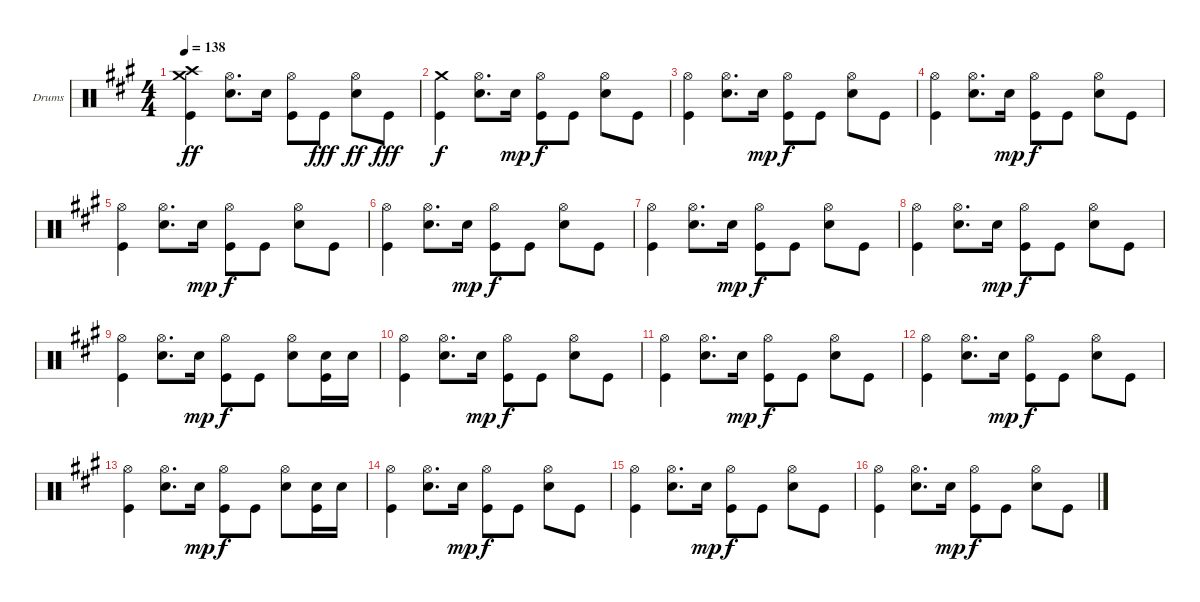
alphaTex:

\defaultSystemsLayout 4
\bracketExtendMode groupsimilarinstruments
\firstSystemTrackNameOrientation horizontal
\otherSystemsTrackNameOrientation horizontal
\track ("Drumkit" "Drums") {instrument percussion}
\staff {score}
\articulation defaults
\ts (4 4)
\tempo 138
\clef neutral
\scale
0.941992
\ks a
("Crash medium (hit)" "Crash high (hit)" "Kick (hit)").4{dy ff} ("Hi-Hat (open)" "Snare (hit) 2").8{d} "Snare (hit) 2".16 ("Hi-Hat (open)" "Kick (hit)").8 "Kick (hit)".8{dy fff} ("Hi-Hat (open)" "Snare (hit) 2").8{dy ff} "Kick (hit)".8{dy fff} |
\scale
1.05801 ("Crash medium (hit)" "Kick (hit)").4{dy f} ("Hi-Hat (open)" "Snare (hit) 2").8{d} "Snare (hit) 2".16{dy mp} ("Hi-Hat (open)" "Kick (hit)").8{dy f} "Kick (hit)".8 ("Hi-Hat (open)" "Snare (hit) 2").8 "Kick (hit)".8 |
\scale
0.941992 ("Hi-Hat (open)" "Kick (hit)").4 ("Hi-Hat (open)" "Snare (hit) 2").8{d} "Snare (hit) 2".16{dy mp} ("Hi-Hat (open)" "Kick (hit)").8{dy f} "Kick (hit)".8 ("Hi-Hat (open)" "Snare (hit) 2").8 "Kick (hit)".8 |
\scale
1.05801 ("Hi-Hat (open)" "Kick (hit)").4 ("Hi-Hat (open)" "Snare (hit) 2").8{d} "Snare (hit) 2".16{dy mp} ("Hi-Hat (open)" "Kick (hit)").8{dy f} "Kick (hit)".8 ("Hi-Hat (open)" "Snare (hit) 2").8 "Kick (hit)".8 |
\scale
0.941992 ("Hi-Hat (open)" "Kick (hit)").4 ("Hi-Hat (open)" "Snare (hit) 2").8{d} "Snare (hit) 2".16{dy mp} ("Hi-Hat (open)" "Kick (hit)").8{dy f} "Kick (hit)".8 ("Hi-Hat (open)" "Snare (hit) 2").8 "Kick (hit)".8 |
\scale
1.05801 ("Hi-Hat (open)" "Kick (hit)").4 ("Hi-Hat (open)" "Snare (hit) 2").8{d} "Snare (hit) 2".16{dy mp} ("Hi-Hat (open)" "Kick (hit)").8{dy f} "Kick (hit)".8 ("Hi-Hat (open)" "Snare (hit) 2").8 "Kick (hit)".8 |
\scale
0.941992 ("Hi-Hat (open)" "Kick (hit)").4 ("Hi-Hat (open)" "Snare (hit) 2").8{d} "Snare (hit) 2".16{dy mp} ("Hi-Hat (open)" "Kick (hit)").8{dy f} "Kick (hit)".8 ("Hi-Hat (open)" "Snare (hit) 2").8 "Kick (hit)".8 |
\scale
1.05801 ("Hi-Hat (open)" "Kick (hit)").4 ("Hi-Hat (open)" "Snare (hit) 2").8{d} "Snare (hit) 2".16{dy mp} ("Hi-Hat (open)" "Kick (hit)").8{dy f} "Kick (hit)".8 ("Hi-Hat (open)" "Snare (hit) 2").8 "Kick (hit)".8 |
\scale
0.941992 ("Hi-Hat (open)" "Kick (hit)").4 ("Hi-Hat (open)" "Snare (hit) 2").8{d} "Snare (hit) 2".16{dy mp} ("Hi-Hat (open)" "Kick (hit)").8{dy f} "Kick (hit)".8 ("Hi-Hat (open)" "Snare (hit) 2").8 ("Snare (hit) 2" "Kick (hit)").16 "Snare (hit) 2".16 |
\scale
1.05801 ("Hi-Hat (open)" "Kick (hit)").4 ("Hi-Hat (open)" "Snare (hit) 2").8{d} "Snare (hit) 2".16{dy mp} ("Hi-Hat (open)" "Kick (hit)").8{dy f} "Kick (hit)".8 ("Hi-Hat (open)" "Snare (hit) 2").8 "Kick (hit)".8 |
\scale
0.941992 ("Hi-Hat (open)" "Kick (hit)").4 ("Hi-Hat (open)" "Snare (hit) 2").8{d} "Snare (hit) 2".16{dy mp} ("Hi-Hat (open)" "Kick (hit)").8{dy f} "Kick (hit)".8 ("Hi-Hat (open)" "Snare (hit) 2").8 "Kick (hit)".8 |
\scale
1.05801 ("Hi-Hat (open)" "Kick (hit)").4 ("Hi-Hat (open)" "Snare (hit) 2").8{d} "Snare (hit) 2".16{dy mp} ("Hi-Hat (open)" "Kick (hit)").8{dy f} "Kick (hit)".8 ("Hi-Hat (open)" "Snare (hit) 2").8 "Kick (hit)".8 |
\scale
0.941992 ("Hi-Hat (open)" "Kick (hit)").4 ("Hi-Hat (open)" "Snare (hit) 2").8{d} "Snare (hit) 2".16{dy mp} ("Hi-Hat (open)" "Kick (hit)").8{dy f} "Kick (hit)".8 ("Hi-Hat (open)" "Snare (hit) 2").8 ("Snare (hit) 2" "Kick (hit)").16 "Snare (hit) 2".16 |
\scale
1.05801 ("Hi-Hat (open)" "Kick (hit)").4 ("Hi-Hat (open)" "Snare (hit) 2").8{d} "Snare (hit) 2".16{dy mp} ("Hi-Hat (open)" "Kick (hit)").8{dy f} "Kick (hit)".8 ("Hi-Hat (open)" "Snare (hit) 2").8 "Kick (hit)".8 |
\scale
0.941992 ("Hi-Hat (open)" "Kick (hit)").4 ("Hi-Hat (open)" "Snare (hit) 2").8{d} "Snare (hit) 2".16{dy mp} ("Hi-Hat (open)" "Kick (hit)").8{dy f} "Kick (hit)".8 ("Hi-Hat (open)" "Snare (hit) 2").8 "Kick (hit)".8 |
\scale
1.05801 ("Hi-Hat (open)" "Kick (hit)").4 ("Hi-Hat (open)" "Snare (hit) 2").8{d} "Snare (hit) 2".16{dy mp} ("Hi-Hat (open)" "Kick (hit)").8{dy f} "Kick (hit)".8 ("Hi-Hat (open)" "Snare (hit) 2").8 "Kick (hit)".8
